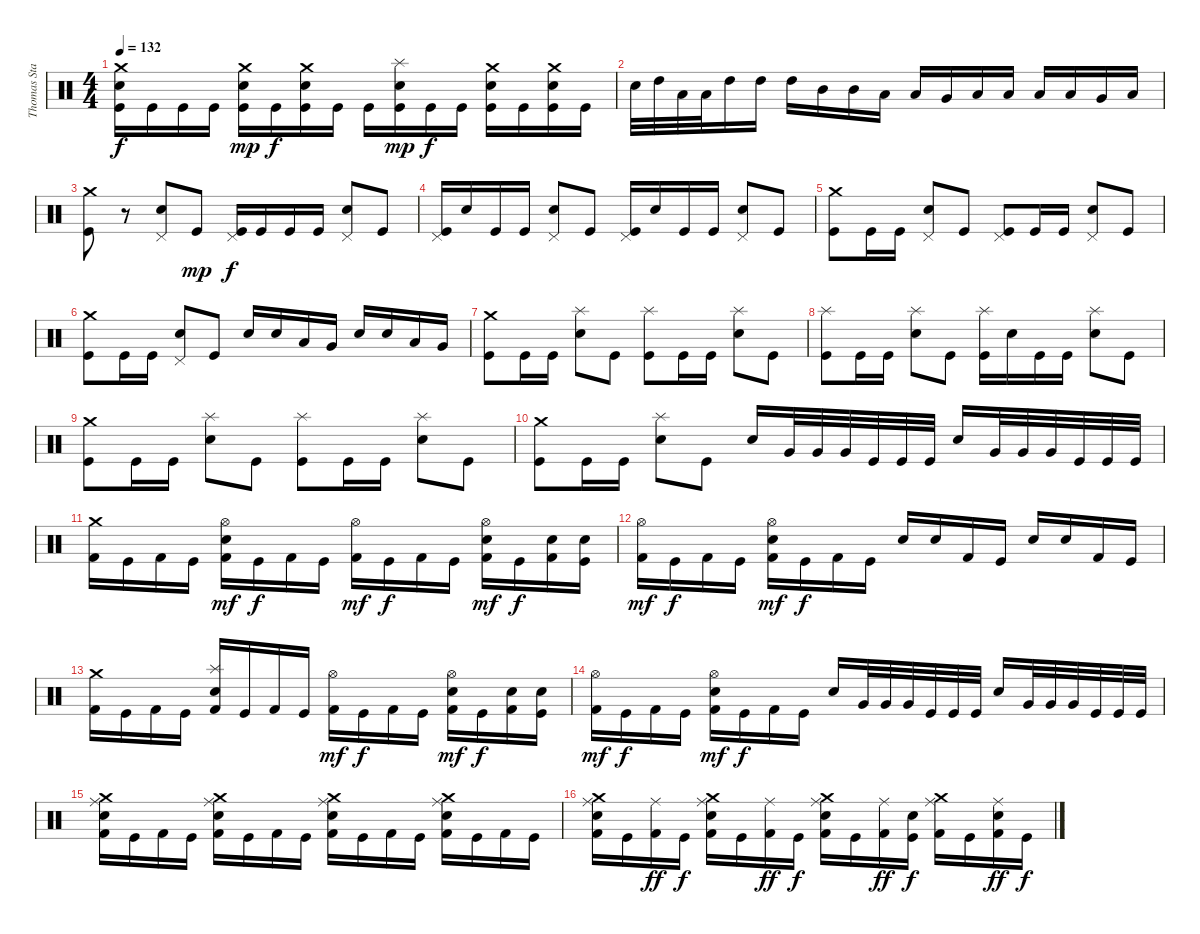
\track ("Thomas Stauch" "Thomas Sta") {instrument percussion}
\staff {score}
\articulation defaults
\ts (4 4)
\tempo 132
\clef neutral
\ks c
("Crash medium (hit)" "Electric Snare (hit)" "Kick (hit)").16{dy f} "Kick (hit)".16 "Kick (hit)".16 "Kick (hit)".16 ("Crash medium (hit)" "Electric Snare (hit)" "Kick (hit)").16{dy mp} "Kick (hit)".16{dy f} ("Crash medium (hit)" "Electric Snare (hit)" "Kick (hit)").16 "Kick (hit)".16 "Kick (hit)".16 ("Splash (hit)" "Electric Snare (hit)" "Kick (hit)").16{dy mp} "Kick (hit)".16{dy f} "Kick (hit)".16 ("Crash medium (hit)" "Electric Snare (hit)" "Kick (hit)").16 "Kick (hit)".16 ("Crash medium (hit)" "Electric Snare (hit)" "Kick (hit)").16 "Kick (hit)".16 |
"Electric Snare (hit)".32 "High Tom (hit)".32 "Low Tom (hit)".32 "Low Tom (hit)".32 "High Tom (hit)".16 "High Tom (hit)".16 "High Tom (hit)".16 "Mid Tom (hit)".16 "Mid Tom (hit)".16 "Low Tom (hit)".16 "Low Tom (hit)".16 "Very Low Tom (hit)".16 "Low Tom (hit)".16 "Low Tom (hit)".16 "Low Floor Tom (hit)".16 "Low Floor Tom (hit)".16 "Very Low Tom (hit)".16 "Low Floor Tom (hit)".16 |
("Crash medium (hit)" "Kick (hit)").8 r.8 ("Pedal Hi-Hat (hit)" "Electric Snare (hit)").8 "Kick (hit)".8{dy mp} ("Pedal Hi-Hat (hit)" "Kick (hit)").16{dy f} "Kick (hit)".16 "Kick (hit)".16 "Kick (hit)".16 ("Pedal Hi-Hat (hit)" "Electric Snare (hit)").8 "Kick (hit)".8 |
("Pedal Hi-Hat (hit)" "Kick (hit)").16 "Electric Snare (hit)".16 "Kick (hit)".16 "Kick (hit)".16 ("Pedal Hi-Hat (hit)" "Electric Snare (hit)").8 "Kick (hit)".8 ("Pedal Hi-Hat (hit)" "Kick (hit)").16 "Electric Snare (hit)".16 "Kick (hit)".16 "Kick (hit)".16 ("Pedal Hi-Hat (hit)" "Electric Snare (hit)").8 "Kick (hit)".8 |
("Crash medium (hit)" "Kick (hit)").8 "Kick (hit)".16 "Kick (hit)".16 ("Pedal Hi-Hat (hit)" "Electric Snare (hit)").8 "Kick (hit)".8 ("Pedal Hi-Hat (hit)" "Kick (hit)").8 "Kick (hit)".16 "Kick (hit)".16 ("Pedal Hi-Hat (hit)" "Electric Snare (hit)").8 "Kick (hit)".8 |
("Crash medium (hit)" "Kick (hit)").8 "Kick (hit)".16 "Kick (hit)".16 ("Pedal Hi-Hat (hit)" "Electric Snare (hit)").8 "Kick (hit)".8 "Electric Snare (hit)".16 "Electric Snare (hit)".16 "Low Tom (hit)".16 "Very Low Tom (hit)".16 "Electric Snare (hit)".16 "Electric Snare (hit)".16 "Low Tom (hit)".16 "Very Low Tom (hit)".16 |
("Crash medium (hit)" "Kick (hit)").8 "Kick (hit)".16 "Kick (hit)".16 ("Splash (hit)" "Electric Snare (hit)").8 "Kick (hit)".8 ("Splash (hit)" "Kick (hit)").8 "Kick (hit)".16 "Kick (hit)".16 ("Splash (hit)" "Electric Snare (hit)").8 "Kick (hit)".8 |
("Splash (hit)" "Kick (hit)").8 "Kick (hit)".16 "Kick (hit)".16 ("Splash (hit)" "Electric Snare (hit)").8 "Kick (hit)".8 ("Splash (hit)" "Kick (hit)").16 "Electric Snare (hit)".16 "Kick (hit)".16 "Kick (hit)".16 ("Splash (hit)" "Electric Snare (hit)").8 "Kick (hit)".8 |
("Crash medium (hit)" "Kick (hit)").8 "Kick (hit)".16 "Kick (hit)".16 ("Splash (hit)" "Electric Snare (hit)").8 "Kick (hit)".8 ("Splash (hit)" "Kick (hit)").8 "Kick (hit)".16 "Kick (hit)".16 ("Splash (hit)" "Electric Snare (hit)").8 "Kick (hit)".8 |
("Crash medium (hit)" "Kick (hit)").8 "Kick (hit)".16 "Kick (hit)".16 ("Splash (hit)" "Electric Snare (hit)").8 "Kick (hit)".8 "Electric Snare (hit)".16 "Very Low Tom (hit)".32 "Very Low Tom (hit)".32 "Very Low Tom (hit)".32 "Kick (hit)".32 "Kick (hit)".32 "Kick (hit)".32 "Electric Snare (hit)".16 "Very Low Tom (hit)".32 "Very Low Tom (hit)".32 "Very Low Tom (hit)".32 "Kick (hit)".32 "Kick (hit)".32 "Kick (hit)".32 |
("Crash medium (hit)" "Kick (hit) 2").16 "Kick (hit)".16 "Kick (hit) 2".16 "Kick (hit)".16 ("Hi-Hat (open)" "Electric Snare (hit)" "Kick (hit) 2").16{dy mf} "Kick (hit)".16{dy f} "Kick (hit) 2".16 "Kick (hit)".16 ("Hi-Hat (open)" "Kick (hit) 2").16{dy mf} "Kick (hit)".16{dy f} "Kick (hit) 2".16 "Kick (hit)".16 ("Hi-Hat (open)" "Electric Snare (hit)" "Kick (hit) 2").16{dy mf} "Kick (hit)".16{dy f} ("Electric Snare (hit)" "Kick (hit) 2").16 ("Electric Snare (hit)" "Kick (hit)").16 |
("Hi-Hat (open)" "Kick (hit) 2").16{dy mf} "Kick (hit)".16{dy f} "Kick (hit) 2".16 "Kick (hit)".16 ("Hi-Hat (open)" "Electric Snare (hit)" "Kick (hit) 2").16{dy mf} "Kick (hit)".16{dy f} "Kick (hit) 2".16 "Kick (hit)".16 "Electric Snare (hit)".16 "Electric Snare (hit)".16 "Kick (hit) 2".16 "Kick (hit)".16 "Electric Snare (hit)".16 "Electric Snare (hit)".16 "Kick (hit) 2".16 "Kick (hit)".16 |
("Crash medium (hit)" "Kick (hit) 2").16 "Kick (hit)".16 "Kick (hit) 2".16 "Kick (hit)".16 ("Splash (hit)" "Electric Snare (hit)" "Kick (hit) 2").16 "Kick (hit)".16 "Kick (hit) 2".16 "Kick (hit)".16 ("Hi-Hat (open)" "Kick (hit) 2").16{dy mf} "Kick (hit)".16{dy f} "Kick (hit) 2".16 "Kick (hit)".16 ("Hi-Hat (open)" "Electric Snare (hit)" "Kick (hit) 2").16{dy mf} "Kick (hit)".16{dy f} ("Electric Snare (hit)" "Kick (hit) 2").16 ("Electric Snare (hit)" "Kick (hit)").16 |
("Hi-Hat (open)" "Kick (hit) 2").16{dy mf} "Kick (hit)".16{dy f} "Kick (hit) 2".16 "Kick (hit)".16 ("Hi-Hat (open)" "Electric Snare (hit)" "Kick (hit) 2").16{dy mf} "Kick (hit)".16{dy f} "Kick (hit) 2".16 "Kick (hit)".16 "Electric Snare (hit)".16 "Very Low Tom (hit)".32 "Very Low Tom (hit)".32 "Very Low Tom (hit)".32 "Kick (hit)".32 "Kick (hit)".32 "Kick (hit)".32 "Electric Snare (hit)".16 "Very Low Tom (hit)".32 "Very Low Tom (hit)".32 "Very Low Tom (hit)".32 "Kick (hit)".32 "Kick (hit)".32 "Kick (hit)".32 |
("Crash medium (hit)" "Ride (middle)" "Electric Snare (hit)" "Kick (hit) 2").16 "Kick (hit)".16 "Kick (hit) 2".16 "Kick (hit)".16 ("Crash medium (hit)" "Ride (middle)" "Electric Snare (hit)" "Kick (hit) 2").16 "Kick (hit)".16 "Kick (hit) 2".16 "Kick (hit)".16 ("Crash medium (hit)" "Ride (middle)" "Electric Snare (hit)" "Kick (hit) 2").16 "Kick (hit)".16 "Kick (hit) 2".16 "Kick (hit)".16 ("Crash medium (hit)" "Ride (middle)" "Electric Snare (hit)" "Kick (hit) 2").16 "Kick (hit)".16 "Kick (hit) 2".16 "Kick (hit)".16 |
("Crash medium (hit)" "Ride (middle)" "Electric Snare (hit)" "Kick (hit) 2").16 "Kick (hit)".16 ("Ride (middle)" "Kick (hit) 2").16{dy ff} "Kick (hit)".16{dy f} ("Crash medium (hit)" "Ride (middle)" "Electric Snare (hit)" "Kick (hit) 2").16 "Kick (hit)".16 ("Ride (middle)" "Kick (hit) 2").16{dy ff} "Kick (hit)".16{dy f} ("Crash medium (hit)" "Ride (middle)" "Electric Snare (hit)" "Kick (hit) 2").16 "Kick (hit)".16 ("Ride (middle)" "Kick (hit) 2").16{dy ff} ("Electric Snare (hit)" "Kick (hit)").16{dy f} ("Crash medium (hit)" "Ride (middle)" "Kick (hit) 2").16 "Kick (hit)".16 ("Ride (middle)" "Electric Snare (hit)" "Kick (hit) 2").16{dy ff} "Kick (hit)".16{dy f}
